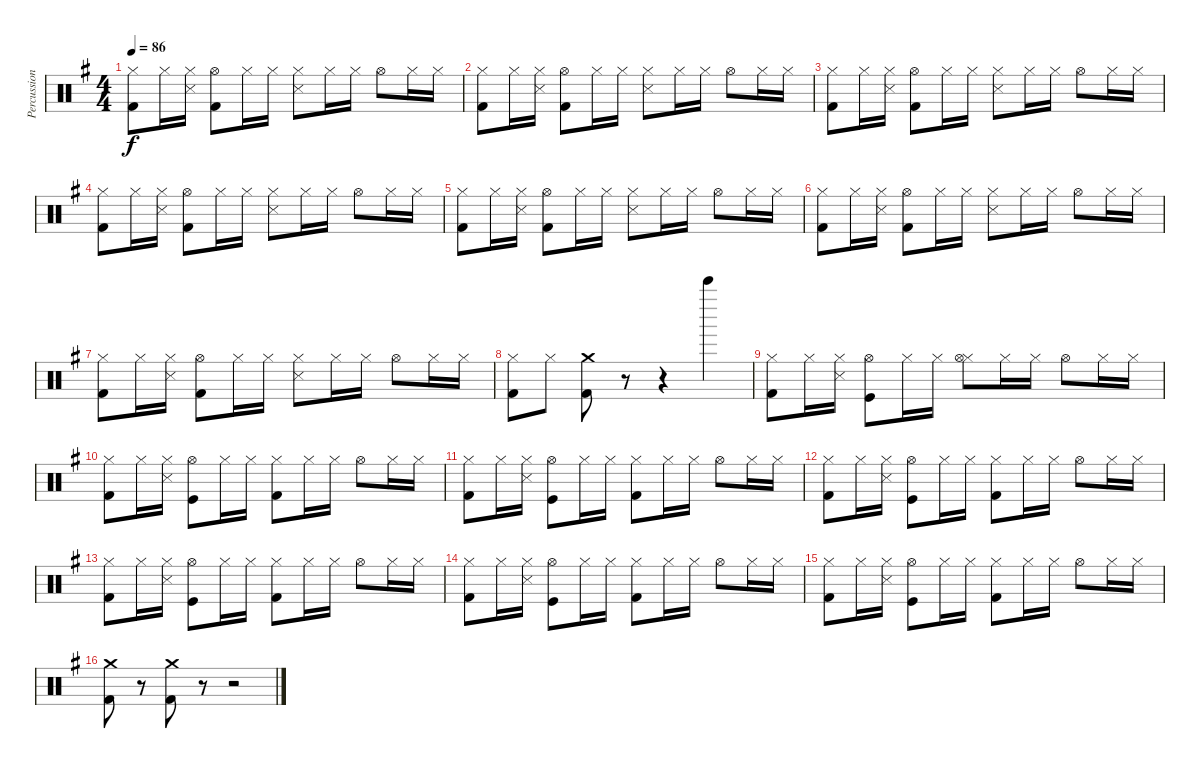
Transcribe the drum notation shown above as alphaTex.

\track ("Percussion" "Percussion") {instrument percussion}
\staff {score}
\articulation defaults
\ts (4 4)
\tempo 86
\clef neutral
\ks g
("Hi-Hat (closed)" "Kick (hit) 2").8{dy f} "Hi-Hat (closed)".16 ("Hi-Hat (closed)" "Snare (side stick) 3").16 ("Hi-Hat (open)" "Kick (hit) 2").8 "Hi-Hat (closed)".16 "Hi-Hat (closed)".16 ("Hi-Hat (closed)" "Snare (side stick) 3").8 "Hi-Hat (closed)".16 "Hi-Hat (closed)".16 "Hi-Hat (open)".8 "Hi-Hat (closed)".16 "Hi-Hat (closed)".16 |
("Hi-Hat (closed)" "Kick (hit) 2").8 "Hi-Hat (closed)".16 ("Hi-Hat (closed)" "Snare (side stick) 3").16 ("Hi-Hat (open)" "Kick (hit) 2").8 "Hi-Hat (closed)".16 "Hi-Hat (closed)".16 ("Hi-Hat (closed)" "Snare (side stick) 3").8 "Hi-Hat (closed)".16 "Hi-Hat (closed)".16 "Hi-Hat (open)".8 "Hi-Hat (closed)".16 "Hi-Hat (closed)".16 |
("Hi-Hat (closed)" "Kick (hit) 2").8 "Hi-Hat (closed)".16 ("Hi-Hat (closed)" "Snare (side stick) 3").16 ("Hi-Hat (open)" "Kick (hit) 2").8 "Hi-Hat (closed)".16 "Hi-Hat (closed)".16 ("Hi-Hat (closed)" "Snare (side stick) 3").8 "Hi-Hat (closed)".16 "Hi-Hat (closed)".16 "Hi-Hat (open)".8 "Hi-Hat (closed)".16 "Hi-Hat (closed)".16 |
("Hi-Hat (closed)" "Kick (hit) 2").8 "Hi-Hat (closed)".16 ("Hi-Hat (closed)" "Snare (side stick) 3").16 ("Hi-Hat (open)" "Kick (hit) 2").8 "Hi-Hat (closed)".16 "Hi-Hat (closed)".16 ("Hi-Hat (closed)" "Snare (side stick) 3").8 "Hi-Hat (closed)".16 "Hi-Hat (closed)".16 "Hi-Hat (open)".8 "Hi-Hat (closed)".16 "Hi-Hat (closed)".16 |
("Hi-Hat (closed)" "Kick (hit) 2").8 "Hi-Hat (closed)".16 ("Hi-Hat (closed)" "Snare (side stick) 3").16 ("Hi-Hat (open)" "Kick (hit) 2").8 "Hi-Hat (closed)".16 "Hi-Hat (closed)".16 ("Hi-Hat (closed)" "Snare (side stick) 3").8 "Hi-Hat (closed)".16 "Hi-Hat (closed)".16 "Hi-Hat (open)".8 "Hi-Hat (closed)".16 "Hi-Hat (closed)".16 |
("Hi-Hat (closed)" "Kick (hit) 2").8 "Hi-Hat (closed)".16 ("Hi-Hat (closed)" "Snare (side stick) 3").16 ("Hi-Hat (open)" "Kick (hit) 2").8 "Hi-Hat (closed)".16 "Hi-Hat (closed)".16 ("Hi-Hat (closed)" "Snare (side stick) 3").8 "Hi-Hat (closed)".16 "Hi-Hat (closed)".16 "Hi-Hat (open)".8 "Hi-Hat (closed)".16 "Hi-Hat (closed)".16 |
("Hi-Hat (closed)" "Kick (hit) 2").8 "Hi-Hat (closed)".16 ("Hi-Hat (closed)" "Snare (side stick) 3").16 ("Hi-Hat (open)" "Kick (hit) 2").8 "Hi-Hat (closed)".16 "Hi-Hat (closed)".16 ("Hi-Hat (closed)" "Snare (side stick) 3").8 "Hi-Hat (closed)".16 "Hi-Hat (closed)".16 "Hi-Hat (open)".8 "Hi-Hat (closed)".16 "Hi-Hat (closed)".16 |
("Hi-Hat (closed)" "Kick (hit) 2").8 "Hi-Hat (closed)".8 ("Crash medium (hit)" "Kick (hit) 2").8 r.8 r.4 "Bell Tree (hit)".4 |
("Hi-Hat (closed)" "Kick (hit) 2").8 "Hi-Hat (closed)".16 ("Hi-Hat (closed)" "Snare (side stick) 3").16 ("Hi-Hat (open)" "Kick (hit)").8 "Hi-Hat (closed)".16 "Hi-Hat (closed)".16 ("Hi-Hat (closed)" "Hi-Hat (open)").8 "Hi-Hat (closed)".16 "Hi-Hat (closed)".16 "Hi-Hat (open)".8 "Hi-Hat (closed)".16 "Hi-Hat (closed)".16 |
("Hi-Hat (closed)" "Kick (hit) 2").8 "Hi-Hat (closed)".16 ("Hi-Hat (closed)" "Snare (side stick) 3").16 ("Hi-Hat (open)" "Kick (hit)").8 "Hi-Hat (closed)".16 "Hi-Hat (closed)".16 ("Hi-Hat (closed)" "Kick (hit) 2").8 "Hi-Hat (closed)".16 "Hi-Hat (closed)".16 "Hi-Hat (open)".8 "Hi-Hat (closed)".16 "Hi-Hat (closed)".16 |
("Hi-Hat (closed)" "Kick (hit) 2").8 "Hi-Hat (closed)".16 ("Hi-Hat (closed)" "Snare (side stick) 3").16 ("Hi-Hat (open)" "Kick (hit)").8 "Hi-Hat (closed)".16 "Hi-Hat (closed)".16 ("Hi-Hat (closed)" "Kick (hit) 2").8 "Hi-Hat (closed)".16 "Hi-Hat (closed)".16 "Hi-Hat (open)".8 "Hi-Hat (closed)".16 "Hi-Hat (closed)".16 |
("Hi-Hat (closed)" "Kick (hit) 2").8 "Hi-Hat (closed)".16 ("Hi-Hat (closed)" "Snare (side stick) 3").16 ("Hi-Hat (open)" "Kick (hit)").8 "Hi-Hat (closed)".16 "Hi-Hat (closed)".16 ("Hi-Hat (closed)" "Kick (hit) 2").8 "Hi-Hat (closed)".16 "Hi-Hat (closed)".16 "Hi-Hat (open)".8 "Hi-Hat (closed)".16 "Hi-Hat (closed)".16 |
("Hi-Hat (closed)" "Kick (hit) 2").8 "Hi-Hat (closed)".16 ("Hi-Hat (closed)" "Snare (side stick) 3").16 ("Hi-Hat (open)" "Kick (hit)").8 "Hi-Hat (closed)".16 "Hi-Hat (closed)".16 ("Hi-Hat (closed)" "Kick (hit) 2").8 "Hi-Hat (closed)".16 "Hi-Hat (closed)".16 "Hi-Hat (open)".8 "Hi-Hat (closed)".16 "Hi-Hat (closed)".16 |
("Hi-Hat (closed)" "Kick (hit) 2").8 "Hi-Hat (closed)".16 ("Hi-Hat (closed)" "Snare (side stick) 3").16 ("Hi-Hat (open)" "Kick (hit)").8 "Hi-Hat (closed)".16 "Hi-Hat (closed)".16 ("Hi-Hat (closed)" "Kick (hit) 2").8 "Hi-Hat (closed)".16 "Hi-Hat (closed)".16 "Hi-Hat (open)".8 "Hi-Hat (closed)".16 "Hi-Hat (closed)".16 |
("Hi-Hat (closed)" "Kick (hit) 2").8 "Hi-Hat (closed)".16 ("Hi-Hat (closed)" "Snare (side stick) 3").16 ("Hi-Hat (open)" "Kick (hit)").8 "Hi-Hat (closed)".16 "Hi-Hat (closed)".16 ("Hi-Hat (closed)" "Kick (hit) 2").8 "Hi-Hat (closed)".16 "Hi-Hat (closed)".16 "Hi-Hat (open)".8 "Hi-Hat (closed)".16 "Hi-Hat (closed)".16 |
("Crash medium (hit)" "Kick (hit) 2").8 r.8 ("Crash medium (hit)" "Kick (hit) 2").8 r.8 r.2
